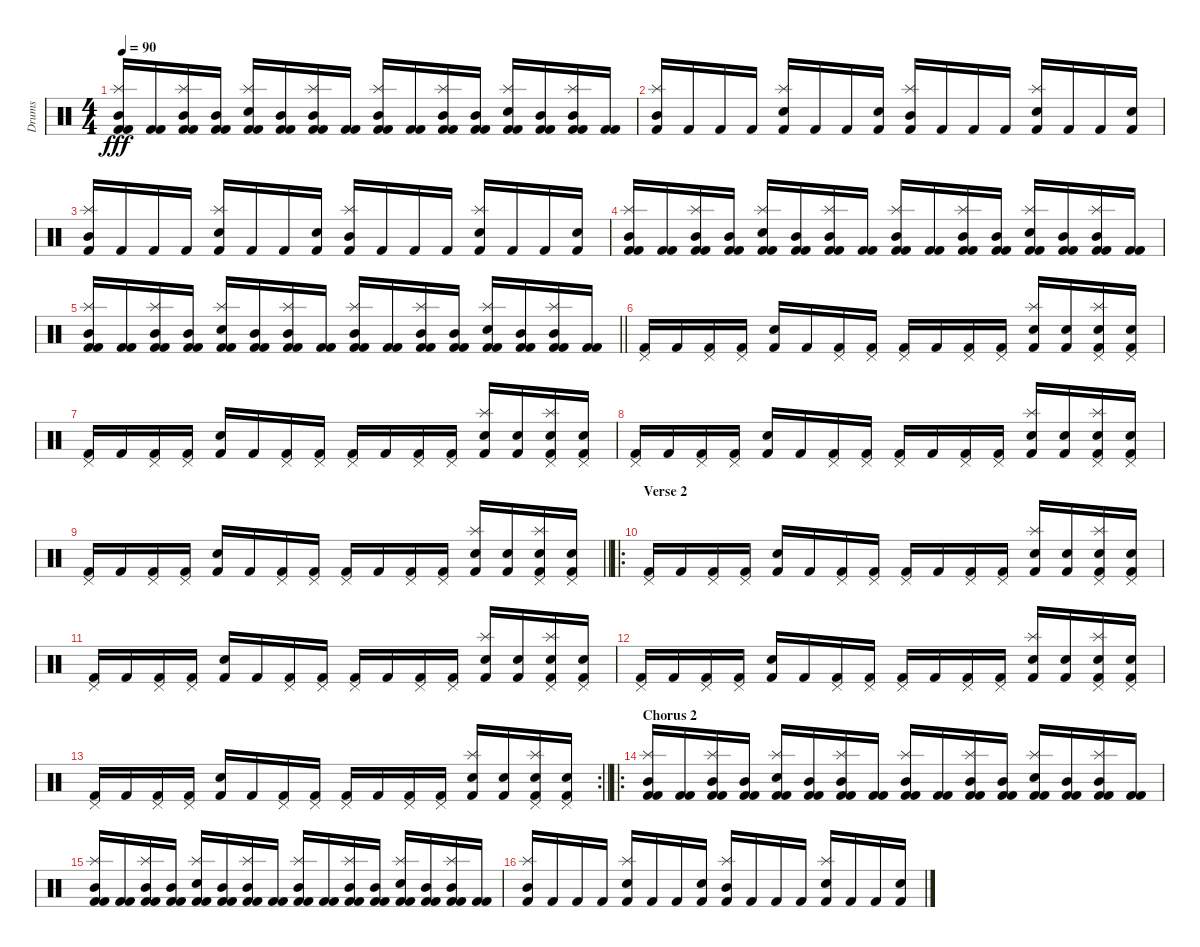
\track ("Drums" "Drums") {instrument percussion}
\staff {score}
\articulation defaults
\ts (4 4)
\tempo 90
\clef neutral
\ks c
("Kick (hit) 2" "Splash (hit)" "Mid Tom (hit)" "Kick (hit) 2").16{dy fff} ("Kick (hit) 2" "Kick (hit) 2").16 ("Kick (hit) 2" "Splash (hit)" "Mid Tom (hit)" "Kick (hit) 2").16 ("Kick (hit) 2" "Mid Tom (hit)" "Kick (hit) 2").16 ("Kick (hit) 2" "Splash (hit)" "Electric Snare (hit)" "Kick (hit) 2").16 ("Kick (hit) 2" "Mid Tom (hit)" "Kick (hit) 2").16 ("Kick (hit) 2" "Splash (hit)" "Mid Tom (hit)" "Kick (hit) 2").16 ("Kick (hit) 2" "Kick (hit) 2").16 ("Kick (hit) 2" "Splash (hit)" "Mid Tom (hit)" "Kick (hit) 2").16 ("Kick (hit) 2" "Kick (hit) 2").16 ("Kick (hit) 2" "Splash (hit)" "Mid Tom (hit)" "Kick (hit) 2").16 ("Kick (hit) 2" "Mid Tom (hit)" "Kick (hit) 2").16 ("Kick (hit) 2" "Splash (hit)" "Electric Snare (hit)" "Kick (hit) 2").16 ("Kick (hit) 2" "Mid Tom (hit)" "Kick (hit) 2").16 ("Kick (hit) 2" "Splash (hit)" "Mid Tom (hit)" "Kick (hit) 2").16 ("Kick (hit) 2" "Kick (hit) 2").16 |
("Splash (hit)" "Mid Tom (hit)" "Kick (hit) 2").16 "Kick (hit) 2".16 "Kick (hit) 2".16 "Kick (hit) 2".16 ("Splash (hit)" "Electric Snare (hit)" "Kick (hit) 2").16 "Kick (hit) 2".16 "Kick (hit) 2".16 ("Electric Snare (hit)" "Kick (hit) 2").16 ("Splash (hit)" "Mid Tom (hit)" "Kick (hit) 2").16 "Kick (hit) 2".16 "Kick (hit) 2".16 "Kick (hit) 2".16 ("Splash (hit)" "Electric Snare (hit)" "Kick (hit) 2").16 "Kick (hit) 2".16 "Kick (hit) 2".16 ("Electric Snare (hit)" "Kick (hit) 2").16 |
("Splash (hit)" "Mid Tom (hit)" "Kick (hit) 2").16 "Kick (hit) 2".16 "Kick (hit) 2".16 "Kick (hit) 2".16 ("Splash (hit)" "Electric Snare (hit)" "Kick (hit) 2").16 "Kick (hit) 2".16 "Kick (hit) 2".16 ("Electric Snare (hit)" "Kick (hit) 2").16 ("Splash (hit)" "Mid Tom (hit)" "Kick (hit) 2").16 "Kick (hit) 2".16 "Kick (hit) 2".16 "Kick (hit) 2".16 ("Splash (hit)" "Electric Snare (hit)" "Kick (hit) 2").16 "Kick (hit) 2".16 "Kick (hit) 2".16 ("Electric Snare (hit)" "Kick (hit) 2").16 |
("Kick (hit) 2" "Splash (hit)" "Mid Tom (hit)" "Kick (hit) 2").16 ("Kick (hit) 2" "Kick (hit) 2").16 ("Kick (hit) 2" "Splash (hit)" "Mid Tom (hit)" "Kick (hit) 2").16 ("Kick (hit) 2" "Mid Tom (hit)" "Kick (hit) 2").16 ("Kick (hit) 2" "Splash (hit)" "Electric Snare (hit)" "Kick (hit) 2").16 ("Kick (hit) 2" "Mid Tom (hit)" "Kick (hit) 2").16 ("Kick (hit) 2" "Splash (hit)" "Mid Tom (hit)" "Kick (hit) 2").16 ("Kick (hit) 2" "Kick (hit) 2").16 ("Kick (hit) 2" "Splash (hit)" "Mid Tom (hit)" "Kick (hit) 2").16 ("Kick (hit) 2" "Kick (hit) 2").16 ("Kick (hit) 2" "Splash (hit)" "Mid Tom (hit)" "Kick (hit) 2").16 ("Kick (hit) 2" "Mid Tom (hit)" "Kick (hit) 2").16 ("Kick (hit) 2" "Splash (hit)" "Electric Snare (hit)" "Kick (hit) 2").16 ("Kick (hit) 2" "Mid Tom (hit)" "Kick (hit) 2").16 ("Kick (hit) 2" "Splash (hit)" "Mid Tom (hit)" "Kick (hit) 2").16 ("Kick (hit) 2" "Kick (hit) 2").16 |
\barLineRight lightlight
("Kick (hit) 2" "Splash (hit)" "Mid Tom (hit)" "Kick (hit) 2").16 ("Kick (hit) 2" "Kick (hit) 2").16 ("Kick (hit) 2" "Splash (hit)" "Mid Tom (hit)" "Kick (hit) 2").16 ("Kick (hit) 2" "Mid Tom (hit)" "Kick (hit) 2").16 ("Kick (hit) 2" "Splash (hit)" "Electric Snare (hit)" "Kick (hit) 2").16 ("Kick (hit) 2" "Mid Tom (hit)" "Kick (hit) 2").16 ("Kick (hit) 2" "Splash (hit)" "Mid Tom (hit)" "Kick (hit) 2").16 ("Kick (hit) 2" "Kick (hit) 2").16 ("Kick (hit) 2" "Splash (hit)" "Mid Tom (hit)" "Kick (hit) 2").16 ("Kick (hit) 2" "Kick (hit) 2").16 ("Kick (hit) 2" "Splash (hit)" "Mid Tom (hit)" "Kick (hit) 2").16 ("Kick (hit) 2" "Mid Tom (hit)" "Kick (hit) 2").16 ("Kick (hit) 2" "Splash (hit)" "Electric Snare (hit)" "Kick (hit) 2").16 ("Kick (hit) 2" "Mid Tom (hit)" "Kick (hit) 2").16 ("Kick (hit) 2" "Splash (hit)" "Mid Tom (hit)" "Kick (hit) 2").16 ("Kick (hit) 2" "Kick (hit) 2").16 |
("Pedal Hi-Hat (hit)" "Kick (hit) 2").16 "Kick (hit) 2".16 ("Pedal Hi-Hat (hit)" "Kick (hit) 2").16 ("Pedal Hi-Hat (hit)" "Kick (hit) 2").16 ("Electric Snare (hit)" "Kick (hit) 2").16 "Kick (hit) 2".16 ("Pedal Hi-Hat (hit)" "Kick (hit) 2").16 ("Pedal Hi-Hat (hit)" "Kick (hit) 2").16 ("Pedal Hi-Hat (hit)" "Kick (hit) 2").16 "Kick (hit) 2".16 ("Pedal Hi-Hat (hit)" "Kick (hit) 2").16 ("Pedal Hi-Hat (hit)" "Kick (hit) 2").16 ("Splash (hit)" "Electric Snare (hit)" "Kick (hit) 2").16 ("Electric Snare (hit)" "Kick (hit) 2").16 ("Splash (hit)" "Pedal Hi-Hat (hit)" "Electric Snare (hit)" "Kick (hit) 2").16 ("Pedal Hi-Hat (hit)" "Electric Snare (hit)" "Kick (hit) 2").16 |
("Pedal Hi-Hat (hit)" "Kick (hit) 2").16 "Kick (hit) 2".16 ("Pedal Hi-Hat (hit)" "Kick (hit) 2").16 ("Pedal Hi-Hat (hit)" "Kick (hit) 2").16 ("Electric Snare (hit)" "Kick (hit) 2").16 "Kick (hit) 2".16 ("Pedal Hi-Hat (hit)" "Kick (hit) 2").16 ("Pedal Hi-Hat (hit)" "Kick (hit) 2").16 ("Pedal Hi-Hat (hit)" "Kick (hit) 2").16 "Kick (hit) 2".16 ("Pedal Hi-Hat (hit)" "Kick (hit) 2").16 ("Pedal Hi-Hat (hit)" "Kick (hit) 2").16 ("Splash (hit)" "Electric Snare (hit)" "Kick (hit) 2").16 ("Electric Snare (hit)" "Kick (hit) 2").16 ("Splash (hit)" "Pedal Hi-Hat (hit)" "Electric Snare (hit)" "Kick (hit) 2").16 ("Pedal Hi-Hat (hit)" "Electric Snare (hit)" "Kick (hit) 2").16 |
("Pedal Hi-Hat (hit)" "Kick (hit) 2").16 "Kick (hit) 2".16 ("Pedal Hi-Hat (hit)" "Kick (hit) 2").16 ("Pedal Hi-Hat (hit)" "Kick (hit) 2").16 ("Electric Snare (hit)" "Kick (hit) 2").16 "Kick (hit) 2".16 ("Pedal Hi-Hat (hit)" "Kick (hit) 2").16 ("Pedal Hi-Hat (hit)" "Kick (hit) 2").16 ("Pedal Hi-Hat (hit)" "Kick (hit) 2").16 "Kick (hit) 2".16 ("Pedal Hi-Hat (hit)" "Kick (hit) 2").16 ("Pedal Hi-Hat (hit)" "Kick (hit) 2").16 ("Splash (hit)" "Electric Snare (hit)" "Kick (hit) 2").16 ("Electric Snare (hit)" "Kick (hit) 2").16 ("Splash (hit)" "Pedal Hi-Hat (hit)" "Electric Snare (hit)" "Kick (hit) 2").16 ("Pedal Hi-Hat (hit)" "Electric Snare (hit)" "Kick (hit) 2").16 |
\barLineRight lightlight
("Pedal Hi-Hat (hit)" "Kick (hit) 2").16 "Kick (hit) 2".16 ("Pedal Hi-Hat (hit)" "Kick (hit) 2").16 ("Pedal Hi-Hat (hit)" "Kick (hit) 2").16 ("Electric Snare (hit)" "Kick (hit) 2").16 "Kick (hit) 2".16 ("Pedal Hi-Hat (hit)" "Kick (hit) 2").16 ("Pedal Hi-Hat (hit)" "Kick (hit) 2").16 ("Pedal Hi-Hat (hit)" "Kick (hit) 2").16 "Kick (hit) 2".16 ("Pedal Hi-Hat (hit)" "Kick (hit) 2").16 ("Pedal Hi-Hat (hit)" "Kick (hit) 2").16 ("Splash (hit)" "Electric Snare (hit)" "Kick (hit) 2").16 ("Electric Snare (hit)" "Kick (hit) 2").16 ("Splash (hit)" "Pedal Hi-Hat (hit)" "Electric Snare (hit)" "Kick (hit) 2").16 ("Pedal Hi-Hat (hit)" "Electric Snare (hit)" "Kick (hit) 2").16 |
\ro
\section ("" "Verse 2")
("Pedal Hi-Hat (hit)" "Kick (hit) 2").16 "Kick (hit) 2".16 ("Pedal Hi-Hat (hit)" "Kick (hit) 2").16 ("Pedal Hi-Hat (hit)" "Kick (hit) 2").16 ("Electric Snare (hit)" "Kick (hit) 2").16 "Kick (hit) 2".16 ("Pedal Hi-Hat (hit)" "Kick (hit) 2").16 ("Pedal Hi-Hat (hit)" "Kick (hit) 2").16 ("Pedal Hi-Hat (hit)" "Kick (hit) 2").16 "Kick (hit) 2".16 ("Pedal Hi-Hat (hit)" "Kick (hit) 2").16 ("Pedal Hi-Hat (hit)" "Kick (hit) 2").16 ("Splash (hit)" "Electric Snare (hit)" "Kick (hit) 2").16 ("Electric Snare (hit)" "Kick (hit) 2").16 ("Splash (hit)" "Pedal Hi-Hat (hit)" "Electric Snare (hit)" "Kick (hit) 2").16 ("Pedal Hi-Hat (hit)" "Electric Snare (hit)" "Kick (hit) 2").16 |
("Pedal Hi-Hat (hit)" "Kick (hit) 2").16 "Kick (hit) 2".16 ("Pedal Hi-Hat (hit)" "Kick (hit) 2").16 ("Pedal Hi-Hat (hit)" "Kick (hit) 2").16 ("Electric Snare (hit)" "Kick (hit) 2").16 "Kick (hit) 2".16 ("Pedal Hi-Hat (hit)" "Kick (hit) 2").16 ("Pedal Hi-Hat (hit)" "Kick (hit) 2").16 ("Pedal Hi-Hat (hit)" "Kick (hit) 2").16 "Kick (hit) 2".16 ("Pedal Hi-Hat (hit)" "Kick (hit) 2").16 ("Pedal Hi-Hat (hit)" "Kick (hit) 2").16 ("Splash (hit)" "Electric Snare (hit)" "Kick (hit) 2").16 ("Electric Snare (hit)" "Kick (hit) 2").16 ("Splash (hit)" "Pedal Hi-Hat (hit)" "Electric Snare (hit)" "Kick (hit) 2").16 ("Pedal Hi-Hat (hit)" "Electric Snare (hit)" "Kick (hit) 2").16 |
("Pedal Hi-Hat (hit)" "Kick (hit) 2").16 "Kick (hit) 2".16 ("Pedal Hi-Hat (hit)" "Kick (hit) 2").16 ("Pedal Hi-Hat (hit)" "Kick (hit) 2").16 ("Electric Snare (hit)" "Kick (hit) 2").16 "Kick (hit) 2".16 ("Pedal Hi-Hat (hit)" "Kick (hit) 2").16 ("Pedal Hi-Hat (hit)" "Kick (hit) 2").16 ("Pedal Hi-Hat (hit)" "Kick (hit) 2").16 "Kick (hit) 2".16 ("Pedal Hi-Hat (hit)" "Kick (hit) 2").16 ("Pedal Hi-Hat (hit)" "Kick (hit) 2").16 ("Splash (hit)" "Electric Snare (hit)" "Kick (hit) 2").16 ("Electric Snare (hit)" "Kick (hit) 2").16 ("Splash (hit)" "Pedal Hi-Hat (hit)" "Electric Snare (hit)" "Kick (hit) 2").16 ("Pedal Hi-Hat (hit)" "Electric Snare (hit)" "Kick (hit) 2").16 |
\rc 2
\barLineRight lightlight
("Pedal Hi-Hat (hit)" "Kick (hit) 2").16 "Kick (hit) 2".16 ("Pedal Hi-Hat (hit)" "Kick (hit) 2").16 ("Pedal Hi-Hat (hit)" "Kick (hit) 2").16 ("Electric Snare (hit)" "Kick (hit) 2").16 "Kick (hit) 2".16 ("Pedal Hi-Hat (hit)" "Kick (hit) 2").16 ("Pedal Hi-Hat (hit)" "Kick (hit) 2").16 ("Pedal Hi-Hat (hit)" "Kick (hit) 2").16 "Kick (hit) 2".16 ("Pedal Hi-Hat (hit)" "Kick (hit) 2").16 ("Pedal Hi-Hat (hit)" "Kick (hit) 2").16 ("Splash (hit)" "Electric Snare (hit)" "Kick (hit) 2").16 ("Electric Snare (hit)" "Kick (hit) 2").16 ("Splash (hit)" "Pedal Hi-Hat (hit)" "Electric Snare (hit)" "Kick (hit) 2").16 ("Pedal Hi-Hat (hit)" "Electric Snare (hit)" "Kick (hit) 2").16 |
\ro
\section ("" "Chorus 2")
("Kick (hit) 2" "Splash (hit)" "Mid Tom (hit)" "Kick (hit) 2").16 ("Kick (hit) 2" "Kick (hit) 2").16 ("Kick (hit) 2" "Splash (hit)" "Mid Tom (hit)" "Kick (hit) 2").16 ("Kick (hit) 2" "Mid Tom (hit)" "Kick (hit) 2").16 ("Kick (hit) 2" "Splash (hit)" "Electric Snare (hit)" "Kick (hit) 2").16 ("Kick (hit) 2" "Mid Tom (hit)" "Kick (hit) 2").16 ("Kick (hit) 2" "Splash (hit)" "Mid Tom (hit)" "Kick (hit) 2").16 ("Kick (hit) 2" "Kick (hit) 2").16 ("Kick (hit) 2" "Splash (hit)" "Mid Tom (hit)" "Kick (hit) 2").16 ("Kick (hit) 2" "Kick (hit) 2").16 ("Kick (hit) 2" "Splash (hit)" "Mid Tom (hit)" "Kick (hit) 2").16 ("Kick (hit) 2" "Mid Tom (hit)" "Kick (hit) 2").16 ("Kick (hit) 2" "Splash (hit)" "Electric Snare (hit)" "Kick (hit) 2").16 ("Kick (hit) 2" "Mid Tom (hit)" "Kick (hit) 2").16 ("Kick (hit) 2" "Splash (hit)" "Mid Tom (hit)" "Kick (hit) 2").16 ("Kick (hit) 2" "Kick (hit) 2").16 |
("Kick (hit) 2" "Splash (hit)" "Mid Tom (hit)" "Kick (hit) 2").16 ("Kick (hit) 2" "Kick (hit) 2").16 ("Kick (hit) 2" "Splash (hit)" "Mid Tom (hit)" "Kick (hit) 2").16 ("Kick (hit) 2" "Mid Tom (hit)" "Kick (hit) 2").16 ("Kick (hit) 2" "Splash (hit)" "Electric Snare (hit)" "Kick (hit) 2").16 ("Kick (hit) 2" "Mid Tom (hit)" "Kick (hit) 2").16 ("Kick (hit) 2" "Splash (hit)" "Mid Tom (hit)" "Kick (hit) 2").16 ("Kick (hit) 2" "Kick (hit) 2").16 ("Kick (hit) 2" "Splash (hit)" "Mid Tom (hit)" "Kick (hit) 2").16 ("Kick (hit) 2" "Kick (hit) 2").16 ("Kick (hit) 2" "Splash (hit)" "Mid Tom (hit)" "Kick (hit) 2").16 ("Kick (hit) 2" "Mid Tom (hit)" "Kick (hit) 2").16 ("Kick (hit) 2" "Splash (hit)" "Electric Snare (hit)" "Kick (hit) 2").16 ("Kick (hit) 2" "Mid Tom (hit)" "Kick (hit) 2").16 ("Kick (hit) 2" "Splash (hit)" "Mid Tom (hit)" "Kick (hit) 2").16 ("Kick (hit) 2" "Kick (hit) 2").16 |
("Splash (hit)" "Mid Tom (hit)" "Kick (hit) 2").16 "Kick (hit) 2".16 "Kick (hit) 2".16 "Kick (hit) 2".16 ("Splash (hit)" "Electric Snare (hit)" "Kick (hit) 2").16 "Kick (hit) 2".16 "Kick (hit) 2".16 ("Electric Snare (hit)" "Kick (hit) 2").16 ("Splash (hit)" "Mid Tom (hit)" "Kick (hit) 2").16 "Kick (hit) 2".16 "Kick (hit) 2".16 "Kick (hit) 2".16 ("Splash (hit)" "Electric Snare (hit)" "Kick (hit) 2").16 "Kick (hit) 2".16 "Kick (hit) 2".16 ("Electric Snare (hit)" "Kick (hit) 2").16
